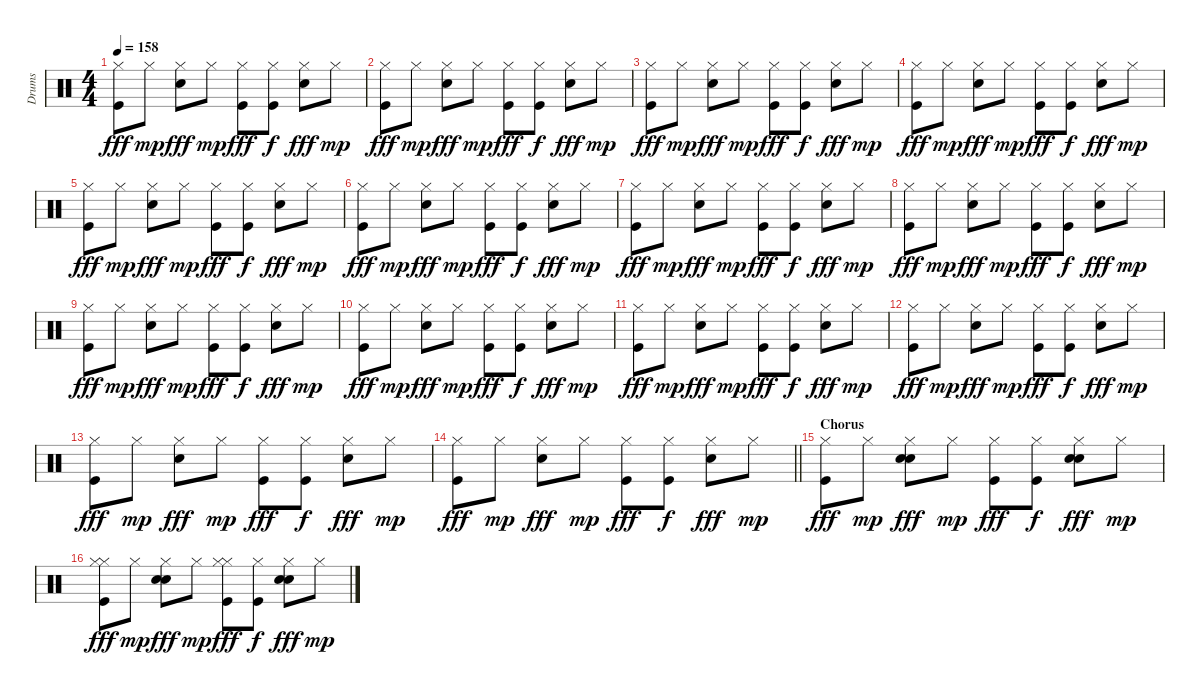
\track ("Drums" "Drums") {instrument percussion}
\staff {score}
\articulation defaults
\ts (4 4)
\tempo 158
\clef neutral
\ks c
("Hi-Hat (closed)" "Kick (hit)").8{dy fff} "Hi-Hat (closed)".8{dy mp} ("Snare (hit) 2" "Hi-Hat (closed)").8{dy fff} "Hi-Hat (closed)".8{dy mp} ("Hi-Hat (closed)" "Kick (hit)").8{dy fff} ("Hi-Hat (closed)" "Kick (hit)").8{dy f} ("Snare (hit) 2" "Hi-Hat (closed)").8{dy fff} "Hi-Hat (closed)".8{dy mp} |
("Hi-Hat (closed)" "Kick (hit)").8{dy fff} "Hi-Hat (closed)".8{dy mp} ("Snare (hit) 2" "Hi-Hat (closed)").8{dy fff} "Hi-Hat (closed)".8{dy mp} ("Hi-Hat (closed)" "Kick (hit)").8{dy fff} ("Hi-Hat (closed)" "Kick (hit)").8{dy f} ("Snare (hit) 2" "Hi-Hat (closed)").8{dy fff} "Hi-Hat (closed)".8{dy mp} |
("Hi-Hat (closed)" "Kick (hit)").8{dy fff} "Hi-Hat (closed)".8{dy mp} ("Snare (hit) 2" "Hi-Hat (closed)").8{dy fff} "Hi-Hat (closed)".8{dy mp} ("Hi-Hat (closed)" "Kick (hit)").8{dy fff} ("Hi-Hat (closed)" "Kick (hit)").8{dy f} ("Snare (hit) 2" "Hi-Hat (closed)").8{dy fff} "Hi-Hat (closed)".8{dy mp} |
("Hi-Hat (closed)" "Kick (hit)").8{dy fff} "Hi-Hat (closed)".8{dy mp} ("Snare (hit) 2" "Hi-Hat (closed)").8{dy fff} "Hi-Hat (closed)".8{dy mp} ("Hi-Hat (closed)" "Kick (hit)").8{dy fff} ("Hi-Hat (closed)" "Kick (hit)").8{dy f} ("Snare (hit) 2" "Hi-Hat (closed)").8{dy fff} "Hi-Hat (closed)".8{dy mp} |
("Hi-Hat (closed)" "Kick (hit)").8{dy fff} "Hi-Hat (closed)".8{dy mp} ("Snare (hit) 2" "Hi-Hat (closed)").8{dy fff} "Hi-Hat (closed)".8{dy mp} ("Hi-Hat (closed)" "Kick (hit)").8{dy fff} ("Hi-Hat (closed)" "Kick (hit)").8{dy f} ("Snare (hit) 2" "Hi-Hat (closed)").8{dy fff} "Hi-Hat (closed)".8{dy mp} |
("Hi-Hat (closed)" "Kick (hit)").8{dy fff} "Hi-Hat (closed)".8{dy mp} ("Snare (hit) 2" "Hi-Hat (closed)").8{dy fff} "Hi-Hat (closed)".8{dy mp} ("Hi-Hat (closed)" "Kick (hit)").8{dy fff} ("Hi-Hat (closed)" "Kick (hit)").8{dy f} ("Snare (hit) 2" "Hi-Hat (closed)").8{dy fff} "Hi-Hat (closed)".8{dy mp} |
("Hi-Hat (closed)" "Kick (hit)").8{dy fff} "Hi-Hat (closed)".8{dy mp} ("Snare (hit) 2" "Hi-Hat (closed)").8{dy fff} "Hi-Hat (closed)".8{dy mp} ("Hi-Hat (closed)" "Kick (hit)").8{dy fff} ("Hi-Hat (closed)" "Kick (hit)").8{dy f} ("Snare (hit) 2" "Hi-Hat (closed)").8{dy fff} "Hi-Hat (closed)".8{dy mp} |
("Hi-Hat (closed)" "Kick (hit)").8{dy fff} "Hi-Hat (closed)".8{dy mp} ("Snare (hit) 2" "Hi-Hat (closed)").8{dy fff} "Hi-Hat (closed)".8{dy mp} ("Hi-Hat (closed)" "Kick (hit)").8{dy fff} ("Hi-Hat (closed)" "Kick (hit)").8{dy f} ("Snare (hit) 2" "Hi-Hat (closed)").8{dy fff} "Hi-Hat (closed)".8{dy mp} |
("Hi-Hat (closed)" "Kick (hit)").8{dy fff} "Hi-Hat (closed)".8{dy mp} ("Snare (hit) 2" "Hi-Hat (closed)").8{dy fff} "Hi-Hat (closed)".8{dy mp} ("Hi-Hat (closed)" "Kick (hit)").8{dy fff} ("Hi-Hat (closed)" "Kick (hit)").8{dy f} ("Snare (hit) 2" "Hi-Hat (closed)").8{dy fff} "Hi-Hat (closed)".8{dy mp} |
("Hi-Hat (closed)" "Kick (hit)").8{dy fff} "Hi-Hat (closed)".8{dy mp} ("Snare (hit) 2" "Hi-Hat (closed)").8{dy fff} "Hi-Hat (closed)".8{dy mp} ("Hi-Hat (closed)" "Kick (hit)").8{dy fff} ("Hi-Hat (closed)" "Kick (hit)").8{dy f} ("Snare (hit) 2" "Hi-Hat (closed)").8{dy fff} "Hi-Hat (closed)".8{dy mp} |
("Hi-Hat (closed)" "Kick (hit)").8{dy fff} "Hi-Hat (closed)".8{dy mp} ("Snare (hit) 2" "Hi-Hat (closed)").8{dy fff} "Hi-Hat (closed)".8{dy mp} ("Hi-Hat (closed)" "Kick (hit)").8{dy fff} ("Hi-Hat (closed)" "Kick (hit)").8{dy f} ("Snare (hit) 2" "Hi-Hat (closed)").8{dy fff} "Hi-Hat (closed)".8{dy mp} |
("Hi-Hat (closed)" "Kick (hit)").8{dy fff} "Hi-Hat (closed)".8{dy mp} ("Snare (hit) 2" "Hi-Hat (closed)").8{dy fff} "Hi-Hat (closed)".8{dy mp} ("Hi-Hat (closed)" "Kick (hit)").8{dy fff} ("Hi-Hat (closed)" "Kick (hit)").8{dy f} ("Snare (hit) 2" "Hi-Hat (closed)").8{dy fff} "Hi-Hat (closed)".8{dy mp} |
("Hi-Hat (closed)" "Kick (hit)").8{dy fff} "Hi-Hat (closed)".8{dy mp} ("Snare (hit) 2" "Hi-Hat (closed)").8{dy fff} "Hi-Hat (closed)".8{dy mp} ("Hi-Hat (closed)" "Kick (hit)").8{dy fff} ("Hi-Hat (closed)" "Kick (hit)").8{dy f} ("Snare (hit) 2" "Hi-Hat (closed)").8{dy fff} "Hi-Hat (closed)".8{dy mp} |
\barLineRight lightlight
("Hi-Hat (closed)" "Kick (hit)").8{dy fff} "Hi-Hat (closed)".8{dy mp} ("Snare (hit) 2" "Hi-Hat (closed)").8{dy fff} "Hi-Hat (closed)".8{dy mp} ("Hi-Hat (closed)" "Kick (hit)").8{dy fff} ("Hi-Hat (closed)" "Kick (hit)").8{dy f} ("Snare (hit) 2" "Hi-Hat (closed)").8{dy fff} "Hi-Hat (closed)".8{dy mp} |
\section ("" "Chorus")
("Hi-Hat (closed)" "Kick (hit)").8{dy fff} "Hi-Hat (closed)".8{dy mp} ("Snare (hit) 2" "Hi-Hat (closed)" "Electric Snare (hit)").8{dy fff} "Hi-Hat (closed)".8{dy mp} ("Hi-Hat (closed)" "Kick (hit)").8{dy fff} ("Hi-Hat (closed)" "Kick (hit)").8{dy f} ("Snare (hit) 2" "Hi-Hat (closed)" "Electric Snare (hit)").8{dy fff} "Hi-Hat (closed)".8{dy mp} |
("Hi-Hat (closed)" "Kick (hit)" "Hi-Hat (closed)").8{dy fff} "Hi-Hat (closed)".8{dy mp} ("Snare (hit) 2" "Hi-Hat (closed)" "Electric Snare (hit)").8{dy fff} "Hi-Hat (closed)".8{dy mp} ("Hi-Hat (closed)" "Kick (hit)" "Hi-Hat (closed)").8{dy fff} ("Hi-Hat (closed)" "Kick (hit)").8{dy f} ("Snare (hit) 2" "Hi-Hat (closed)" "Electric Snare (hit)").8{dy fff} "Hi-Hat (closed)".8{dy mp}
